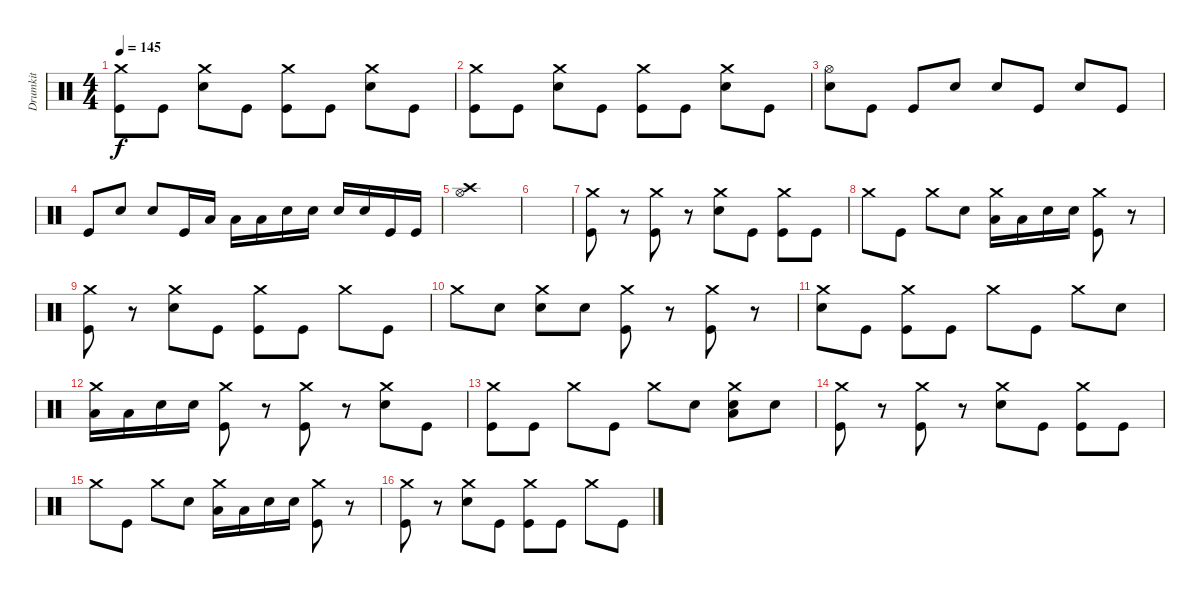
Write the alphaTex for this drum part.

\track ("Drumkit" "Drumkit") {instrument percussion}
\staff {score}
\articulation defaults
\ts (4 4)
\tempo 145
\clef neutral
\ks c
("Crash medium (hit)" "Kick (hit)").8{dy f} "Kick (hit)".8 ("Crash medium (hit)" "Electric Snare (hit)").8 "Kick (hit)".8 ("Crash medium (hit)" "Kick (hit)").8 "Kick (hit)".8 ("Crash medium (hit)" "Electric Snare (hit)").8 "Kick (hit)".8 |
("Crash medium (hit)" "Kick (hit)").8 "Kick (hit)".8 ("Crash medium (hit)" "Electric Snare (hit)").8 "Kick (hit)".8 ("Crash medium (hit)" "Kick (hit)").8 "Kick (hit)".8 ("Crash medium (hit)" "Electric Snare (hit)").8 "Kick (hit)".8 |
("Hi-Hat (open)" "Electric Snare (hit)").8 "Kick (hit)".8 "Kick (hit)".8 "Electric Snare (hit)".8 "Electric Snare (hit)".8 "Kick (hit)".8 "Electric Snare (hit)".8 "Kick (hit)".8 |
"Kick (hit)".8 "Electric Snare (hit)".8 "Electric Snare (hit)".8 "Kick (hit)".16 "Low Tom (hit)".16 "Low Tom (hit)".16 "Low Tom (hit)".16 "Electric Snare (hit)".16 "Electric Snare (hit)".16 "Electric Snare (hit)".16 "Electric Snare (hit)".16 "Kick (hit)".16 "Kick (hit)".16 |
("Hi-Hat (open)" "Crash high (hit)").1 |
|
("Crash medium (hit)" "Kick (hit)").8 r.8 ("Crash medium (hit)" "Kick (hit)").8 r.8 ("Crash medium (hit)" "Electric Snare (hit)").8 "Kick (hit)".8 ("Crash medium (hit)" "Kick (hit)").8 "Kick (hit)".8 |
"Crash medium (hit)".8 "Kick (hit)".8 "Crash medium (hit)".8 "Electric Snare (hit)".8 ("Crash medium (hit)" "Low Tom (hit)").16 "Low Tom (hit)".16 "Electric Snare (hit)".16 "Electric Snare (hit)".16 ("Crash medium (hit)" "Kick (hit)").8 r.8 |
("Crash medium (hit)" "Kick (hit)").8 r.8 ("Crash medium (hit)" "Electric Snare (hit)").8 "Kick (hit)".8 ("Crash medium (hit)" "Kick (hit)").8 "Kick (hit)".8 "Crash medium (hit)".8 "Kick (hit)".8 |
"Crash medium (hit)".8 "Electric Snare (hit)".8 ("Crash medium (hit)" "Electric Snare (hit)").8 "Electric Snare (hit)".8 ("Crash medium (hit)" "Kick (hit)").8 r.8 ("Crash medium (hit)" "Kick (hit)").8 r.8 |
("Crash medium (hit)" "Electric Snare (hit)").8 "Kick (hit)".8 ("Crash medium (hit)" "Kick (hit)").8 "Kick (hit)".8 "Crash medium (hit)".8 "Kick (hit)".8 "Crash medium (hit)".8 "Electric Snare (hit)".8 |
("Crash medium (hit)" "Low Tom (hit)").16 "Low Tom (hit)".16 "Electric Snare (hit)".16 "Electric Snare (hit)".16 ("Crash medium (hit)" "Kick (hit)").8 r.8 ("Crash medium (hit)" "Kick (hit)").8 r.8 ("Crash medium (hit)" "Electric Snare (hit)").8 "Kick (hit)".8 |
("Crash medium (hit)" "Kick (hit)").8 "Kick (hit)".8 "Crash medium (hit)".8 "Kick (hit)".8 "Crash medium (hit)".8 "Electric Snare (hit)".8 ("Crash medium (hit)" "Electric Snare (hit)" "Low Tom (hit)").8 "Electric Snare (hit)".8 |
("Crash medium (hit)" "Kick (hit)").8 r.8 ("Crash medium (hit)" "Kick (hit)").8 r.8 ("Crash medium (hit)" "Electric Snare (hit)").8 "Kick (hit)".8 ("Crash medium (hit)" "Kick (hit)").8 "Kick (hit)".8 |
"Crash medium (hit)".8 "Kick (hit)".8 "Crash medium (hit)".8 "Electric Snare (hit)".8 ("Crash medium (hit)" "Low Tom (hit)").16 "Low Tom (hit)".16 "Electric Snare (hit)".16 "Electric Snare (hit)".16 ("Crash medium (hit)" "Kick (hit)").8 r.8 |
("Crash medium (hit)" "Kick (hit)").8 r.8 ("Crash medium (hit)" "Electric Snare (hit)").8 "Kick (hit)".8 ("Crash medium (hit)" "Kick (hit)").8 "Kick (hit)".8 "Crash medium (hit)".8 "Kick (hit)".8
